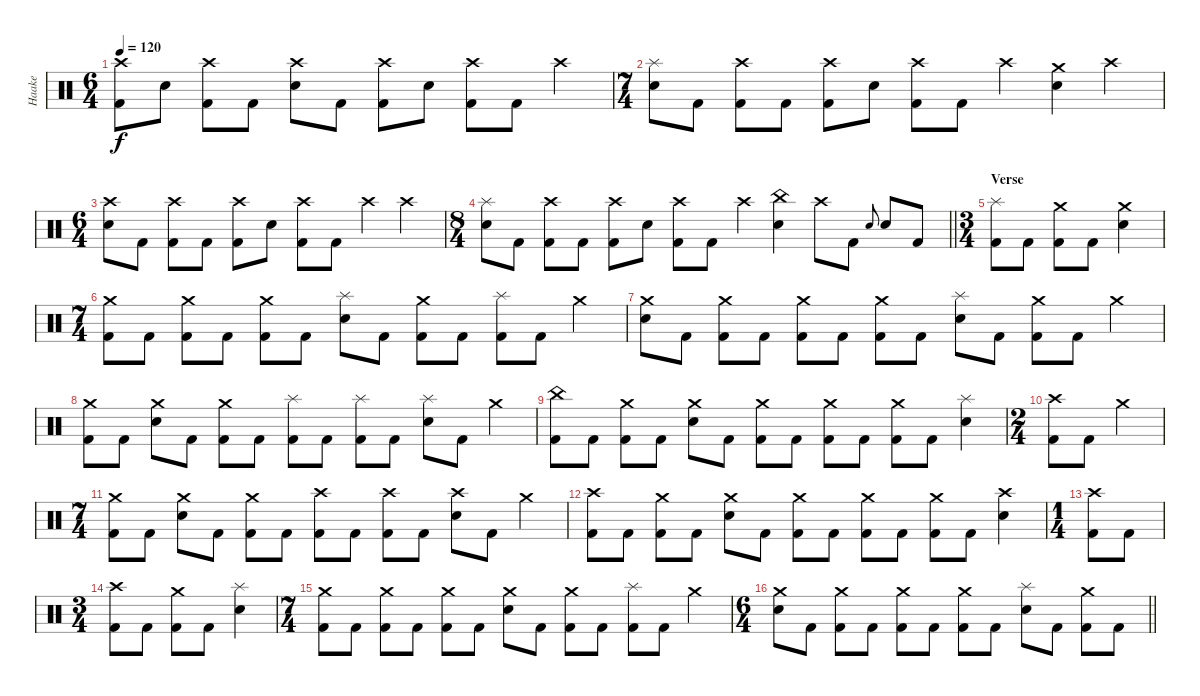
\track ("Haake" "Haake") {instrument percussion}
\staff {score}
\articulation defaults
\ts (6 4)
\tempo 120
\clef neutral
\ks c
("Crash high (hit)" "Kick (hit) 2").8{dy f} "Electric Snare (hit)".8 ("Crash high (hit)" "Kick (hit) 2").8 "Kick (hit) 2".8 ("Crash high (hit)" "Electric Snare (hit)").8 "Kick (hit) 2".8 ("Crash high (hit)" "Kick (hit) 2").8 "Electric Snare (hit)".8 ("Crash high (hit)" "Kick (hit) 2").8 "Kick (hit) 2".8 "Crash high (hit)".4 |
\ts (7 4)
("Splash (hit)" "Electric Snare (hit)").8 "Kick (hit) 2".8 ("Crash high (hit)" "Kick (hit) 2").8 "Kick (hit) 2".8 ("Crash high (hit)" "Kick (hit) 2").8 "Electric Snare (hit)".8 ("Crash high (hit)" "Kick (hit) 2").8 "Kick (hit) 2".8 "Crash high (hit)".4 ("Crash medium (hit)" "Electric Snare (hit)").4 "Crash high (hit)".4 |
\ts (6 4)
("Crash high (hit)" "Electric Snare (hit)").8 "Kick (hit) 2".8 ("Crash high (hit)" "Kick (hit) 2").8 "Kick (hit) 2".8 ("Crash high (hit)" "Kick (hit) 2").8 "Electric Snare (hit)".8 ("Crash high (hit)" "Kick (hit) 2").8 "Kick (hit) 2".8 "Crash high (hit)".4 "Crash high (hit)".4 |
\ts (8 4)
\barLineRight lightlight
("Splash (hit)" "Electric Snare (hit)").8 "Kick (hit) 2".8 ("Crash high (hit)" "Kick (hit) 2").8 "Kick (hit) 2".8 ("Crash high (hit)" "Kick (hit) 2").8 "Electric Snare (hit)".8 ("Crash high (hit)" "Kick (hit) 2").8 "Kick (hit) 2".8 "Crash high (hit)".4 ("China (hit)" "Electric Snare (hit)").4 "Crash high (hit)".8 "Kick (hit) 2".8 "Electric Snare (hit)".8{gr onbeat} "Electric Snare (hit)".8 "Kick (hit) 2".8 |
\ts (3 4)
\section ("" "Verse")
("Splash (hit)" "Kick (hit) 2").8 "Kick (hit) 2".8 ("Crash medium (hit)" "Kick (hit) 2").8 "Kick (hit) 2".8 ("Crash medium (hit)" "Electric Snare (hit)").4 |
\ts (7 4)
("Crash medium (hit)" "Kick (hit) 2").8 "Kick (hit) 2".8 ("Crash medium (hit)" "Kick (hit) 2").8 "Kick (hit) 2".8 ("Crash medium (hit)" "Kick (hit) 2").8 "Kick (hit) 2".8 ("Splash (hit)" "Electric Snare (hit)").8 "Kick (hit) 2".8 ("Crash medium (hit)" "Kick (hit) 2").8 "Kick (hit) 2".8 ("Splash (hit)" "Kick (hit) 2").8 "Kick (hit) 2".8 "Crash medium (hit)".4 |
("Crash medium (hit)" "Electric Snare (hit)").8 "Kick (hit) 2".8 ("Crash medium (hit)" "Kick (hit) 2").8 "Kick (hit) 2".8 ("Crash medium (hit)" "Kick (hit) 2").8 "Kick (hit) 2".8 ("Crash medium (hit)" "Kick (hit) 2").8 "Kick (hit) 2".8 ("Splash (hit)" "Electric Snare (hit)").8 "Kick (hit) 2".8 ("Crash medium (hit)" "Kick (hit) 2").8 "Kick (hit) 2".8 "Crash medium (hit)".4 |
("Crash medium (hit)" "Kick (hit) 2").8 "Kick (hit) 2".8 ("Crash medium (hit)" "Electric Snare (hit)").8 "Kick (hit) 2".8 ("Crash medium (hit)" "Kick (hit) 2").8 "Kick (hit) 2".8 ("Splash (hit)" "Kick (hit) 2").8 "Kick (hit) 2".8 ("Splash (hit)" "Kick (hit) 2").8 "Kick (hit) 2".8 ("Splash (hit)" "Electric Snare (hit)").8 "Kick (hit) 2".8 "Crash medium (hit)".4 |
("China (hit)" "Kick (hit) 2").8 "Kick (hit) 2".8 ("Crash medium (hit)" "Kick (hit) 2").8 "Kick (hit) 2".8 ("Crash medium (hit)" "Electric Snare (hit)").8 "Kick (hit) 2".8 ("Crash medium (hit)" "Kick (hit) 2").8 "Kick (hit) 2".8 ("Crash medium (hit)" "Kick (hit) 2").8 "Kick (hit) 2".8 ("Crash medium (hit)" "Kick (hit) 2").8 "Kick (hit) 2".8 ("Splash (hit)" "Electric Snare (hit)").4 |
\ts (2 4)
("Crash high (hit)" "Kick (hit) 2").8 "Kick (hit) 2".8 "Crash medium (hit)".4 |
\ts (7 4)
("Crash medium (hit)" "Kick (hit) 2").8 "Kick (hit) 2".8 ("Crash medium (hit)" "Electric Snare (hit)").8 "Kick (hit) 2".8 ("Crash medium (hit)" "Kick (hit) 2").8 "Kick (hit) 2".8 ("Crash high (hit)" "Kick (hit) 2").8 "Kick (hit) 2".8 ("Crash high (hit)" "Kick (hit) 2").8 "Kick (hit) 2".8 ("Crash high (hit)" "Electric Snare (hit)").8 "Kick (hit) 2".8 "Crash medium (hit)".4 |
("Crash high (hit)" "Kick (hit) 2").8 "Kick (hit) 2".8 ("Crash medium (hit)" "Kick (hit) 2").8 "Kick (hit) 2".8 ("Crash medium (hit)" "Electric Snare (hit)").8 "Kick (hit) 2".8 ("Crash medium (hit)" "Kick (hit) 2").8 "Kick (hit) 2".8 ("Crash medium (hit)" "Kick (hit) 2").8 "Kick (hit) 2".8 ("Crash medium (hit)" "Kick (hit) 2").8 "Kick (hit) 2".8 ("Crash high (hit)" "Electric Snare (hit)").4 |
\ts (1 4)
("Crash high (hit)" "Kick (hit) 2").8 "Kick (hit) 2".8 |
\ts (3 4)
("Crash high (hit)" "Kick (hit) 2").8 "Kick (hit) 2".8 ("Crash medium (hit)" "Kick (hit) 2").8 "Kick (hit) 2".8 ("Splash (hit)" "Electric Snare (hit)").4 |
\ts (7 4)
("Crash medium (hit)" "Kick (hit) 2").8 "Kick (hit) 2".8 ("Crash medium (hit)" "Kick (hit) 2").8 "Kick (hit) 2".8 ("Crash medium (hit)" "Kick (hit) 2").8 "Kick (hit) 2".8 ("Crash medium (hit)" "Electric Snare (hit)").8 "Kick (hit) 2".8 ("Crash medium (hit)" "Kick (hit) 2").8 "Kick (hit) 2".8 ("Splash (hit)" "Kick (hit) 2").8 "Kick (hit) 2".8 "Crash medium (hit)".4 |
\ts (6 4)
\barLineRight lightlight
("Crash medium (hit)" "Electric Snare (hit)").8 "Kick (hit) 2".8 ("Crash medium (hit)" "Kick (hit) 2").8 "Kick (hit) 2".8 ("Crash medium (hit)" "Kick (hit) 2").8 "Kick (hit) 2".8 ("Crash medium (hit)" "Kick (hit) 2").8 "Kick (hit) 2".8 ("Splash (hit)" "Electric Snare (hit)").8 "Kick (hit) 2".8 ("Crash medium (hit)" "Kick (hit) 2").8 "Kick (hit) 2".8
